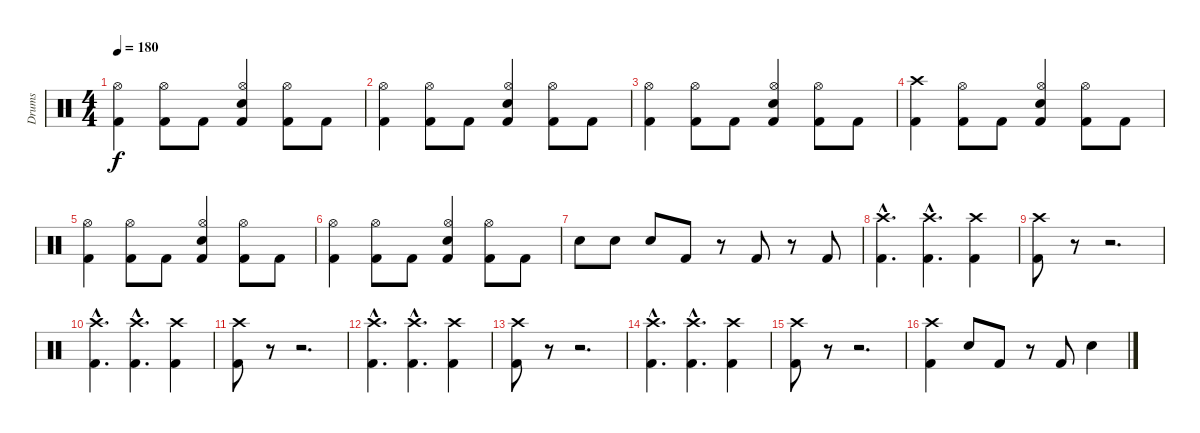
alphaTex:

\track ("Drums" "Drums") {instrument percussion}
\staff {score}
\articulation defaults
\ts (4 4)
\tempo 180
\clef neutral
\ks c
("Kick (hit) 2" "Hi-Hat (open)").4{dy f} ("Kick (hit) 2" "Hi-Hat (open)").8 "Kick (hit) 2".8 ("Kick (hit) 2" "Snare (hit) 2" "Hi-Hat (open)").4 ("Kick (hit) 2" "Hi-Hat (open)").8 "Kick (hit) 2".8 |
("Kick (hit) 2" "Hi-Hat (open)").4 ("Kick (hit) 2" "Hi-Hat (open)").8 "Kick (hit) 2".8 ("Kick (hit) 2" "Snare (hit) 2" "Hi-Hat (open)").4 ("Kick (hit) 2" "Hi-Hat (open)").8 "Kick (hit) 2".8 |
("Kick (hit) 2" "Hi-Hat (open)").4 ("Kick (hit) 2" "Hi-Hat (open)").8 "Kick (hit) 2".8 ("Kick (hit) 2" "Snare (hit) 2" "Hi-Hat (open)").4 ("Kick (hit) 2" "Hi-Hat (open)").8 "Kick (hit) 2".8 |
("Kick (hit) 2" "Crash high (hit)").4 ("Kick (hit) 2" "Hi-Hat (open)").8 "Kick (hit) 2".8 ("Kick (hit) 2" "Snare (hit) 2" "Hi-Hat (open)").4 ("Kick (hit) 2" "Hi-Hat (open)").8 "Kick (hit) 2".8 |
("Kick (hit) 2" "Hi-Hat (open)").4 ("Kick (hit) 2" "Hi-Hat (open)").8 "Kick (hit) 2".8 ("Kick (hit) 2" "Snare (hit) 2" "Hi-Hat (open)").4 ("Kick (hit) 2" "Hi-Hat (open)").8 "Kick (hit) 2".8 |
("Kick (hit) 2" "Hi-Hat (open)").4 ("Kick (hit) 2" "Hi-Hat (open)").8 "Kick (hit) 2".8 ("Kick (hit) 2" "Snare (hit) 2" "Hi-Hat (open)").4 ("Kick (hit) 2" "Hi-Hat (open)").8 "Kick (hit) 2".8 |
"Snare (hit) 2".8 "Snare (hit) 2".8 "Snare (hit) 2".8 "Kick (hit) 2".8 r.8 "Kick (hit) 2".8 r.8 "Kick (hit) 2".8 |
("Kick (hit) 2"{hac} "Crash high (hit)"{hac}).4{d} ("Kick (hit) 2"{hac} "Crash high (hit)"{hac}).4{d} ("Kick (hit) 2" "Crash high (hit)").4 |
("Kick (hit) 2" "Crash high (hit)").8 r.8 r.2{d} |
("Kick (hit) 2"{hac} "Crash high (hit)"{hac}).4{d} ("Kick (hit) 2"{hac} "Crash high (hit)"{hac}).4{d} ("Kick (hit) 2" "Crash high (hit)").4 |
("Kick (hit) 2" "Crash high (hit)").8 r.8 r.2{d} |
("Kick (hit) 2"{hac} "Crash high (hit)"{hac}).4{d} ("Kick (hit) 2"{hac} "Crash high (hit)"{hac}).4{d} ("Kick (hit) 2" "Crash high (hit)").4 |
("Kick (hit) 2" "Crash high (hit)").8 r.8 r.2{d} |
("Kick (hit) 2"{hac} "Crash high (hit)"{hac}).4{d} ("Kick (hit) 2"{hac} "Crash high (hit)"{hac}).4{d} ("Kick (hit) 2" "Crash high (hit)").4 |
("Kick (hit) 2" "Crash high (hit)").8 r.8 r.2{d} |
("Kick (hit) 2" "Crash high (hit)").4 "Snare (hit) 2".8 "Kick (hit) 2".8 r.8 "Kick (hit) 2".8 "Snare (hit) 2".4
